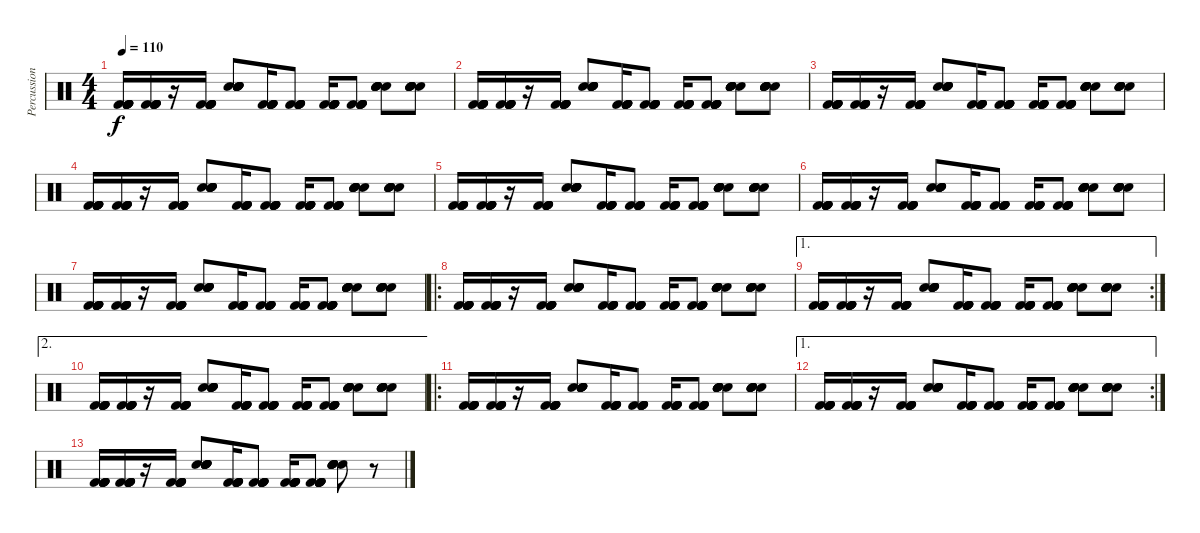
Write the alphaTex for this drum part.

\track ("Percussion 1" "Percussion") {instrument percussion}
\staff {score}
\articulation defaults
\ts (4 4)
\tempo 110
\clef neutral
\ks c
("Kick (hit) 2" "Kick (hit) 2" "Kick (hit) 2" "Kick (hit) 2" "Kick (hit) 2" "Kick (hit) 2").16{dy f} ("Kick (hit) 2" "Kick (hit) 2" "Kick (hit) 2" "Kick (hit) 2" "Kick (hit) 2" "Kick (hit) 2").16 r.16 ("Kick (hit) 2" "Kick (hit) 2" "Kick (hit) 2" "Kick (hit) 2" "Kick (hit) 2" "Kick (hit) 2").16 ("Electric Snare (hit)" "Electric Snare (hit)" "Electric Snare (hit)" "Electric Snare (hit)" "Electric Snare (hit)" "Electric Snare (hit)").8 ("Kick (hit) 2" "Kick (hit) 2" "Kick (hit) 2" "Kick (hit) 2" "Kick (hit) 2" "Kick (hit) 2").16 ("Kick (hit) 2" "Kick (hit) 2" "Kick (hit) 2" "Kick (hit) 2" "Kick (hit) 2" "Kick (hit) 2").8 ("Kick (hit) 2" "Kick (hit) 2" "Kick (hit) 2" "Kick (hit) 2" "Kick (hit) 2" "Kick (hit) 2").16 ("Kick (hit) 2" "Kick (hit) 2" "Kick (hit) 2" "Kick (hit) 2" "Kick (hit) 2" "Kick (hit) 2").8 ("Electric Snare (hit)" "Electric Snare (hit)" "Electric Snare (hit)" "Electric Snare (hit)" "Electric Snare (hit)" "Electric Snare (hit)").8 ("Electric Snare (hit)" "Electric Snare (hit)" "Electric Snare (hit)" "Electric Snare (hit)" "Electric Snare (hit)" "Electric Snare (hit)").8 |
("Kick (hit) 2" "Kick (hit) 2" "Kick (hit) 2" "Kick (hit) 2" "Kick (hit) 2" "Kick (hit) 2").16 ("Kick (hit) 2" "Kick (hit) 2" "Kick (hit) 2" "Kick (hit) 2" "Kick (hit) 2" "Kick (hit) 2").16 r.16 ("Kick (hit) 2" "Kick (hit) 2" "Kick (hit) 2" "Kick (hit) 2" "Kick (hit) 2" "Kick (hit) 2").16 ("Electric Snare (hit)" "Electric Snare (hit)" "Electric Snare (hit)" "Electric Snare (hit)" "Electric Snare (hit)" "Electric Snare (hit)").8 ("Kick (hit) 2" "Kick (hit) 2" "Kick (hit) 2" "Kick (hit) 2" "Kick (hit) 2" "Kick (hit) 2").16 ("Kick (hit) 2" "Kick (hit) 2" "Kick (hit) 2" "Kick (hit) 2" "Kick (hit) 2" "Kick (hit) 2").8 ("Kick (hit) 2" "Kick (hit) 2" "Kick (hit) 2" "Kick (hit) 2" "Kick (hit) 2" "Kick (hit) 2").16 ("Kick (hit) 2" "Kick (hit) 2" "Kick (hit) 2" "Kick (hit) 2" "Kick (hit) 2" "Kick (hit) 2").8 ("Electric Snare (hit)" "Electric Snare (hit)" "Electric Snare (hit)" "Electric Snare (hit)" "Electric Snare (hit)" "Electric Snare (hit)").8 ("Electric Snare (hit)" "Electric Snare (hit)" "Electric Snare (hit)" "Electric Snare (hit)" "Electric Snare (hit)" "Electric Snare (hit)").8 |
("Kick (hit) 2" "Kick (hit) 2" "Kick (hit) 2" "Kick (hit) 2" "Kick (hit) 2" "Kick (hit) 2").16 ("Kick (hit) 2" "Kick (hit) 2" "Kick (hit) 2" "Kick (hit) 2" "Kick (hit) 2" "Kick (hit) 2").16 r.16 ("Kick (hit) 2" "Kick (hit) 2" "Kick (hit) 2" "Kick (hit) 2" "Kick (hit) 2" "Kick (hit) 2").16 ("Electric Snare (hit)" "Electric Snare (hit)" "Electric Snare (hit)" "Electric Snare (hit)" "Electric Snare (hit)" "Electric Snare (hit)").8 ("Kick (hit) 2" "Kick (hit) 2" "Kick (hit) 2" "Kick (hit) 2" "Kick (hit) 2" "Kick (hit) 2").16 ("Kick (hit) 2" "Kick (hit) 2" "Kick (hit) 2" "Kick (hit) 2" "Kick (hit) 2" "Kick (hit) 2").8 ("Kick (hit) 2" "Kick (hit) 2" "Kick (hit) 2" "Kick (hit) 2" "Kick (hit) 2" "Kick (hit) 2").16 ("Kick (hit) 2" "Kick (hit) 2" "Kick (hit) 2" "Kick (hit) 2" "Kick (hit) 2" "Kick (hit) 2").8 ("Electric Snare (hit)" "Electric Snare (hit)" "Electric Snare (hit)" "Electric Snare (hit)" "Electric Snare (hit)" "Electric Snare (hit)").8 ("Electric Snare (hit)" "Electric Snare (hit)" "Electric Snare (hit)" "Electric Snare (hit)" "Electric Snare (hit)" "Electric Snare (hit)").8 |
("Kick (hit) 2" "Kick (hit) 2" "Kick (hit) 2" "Kick (hit) 2" "Kick (hit) 2" "Kick (hit) 2").16 ("Kick (hit) 2" "Kick (hit) 2" "Kick (hit) 2" "Kick (hit) 2" "Kick (hit) 2" "Kick (hit) 2").16 r.16 ("Kick (hit) 2" "Kick (hit) 2" "Kick (hit) 2" "Kick (hit) 2" "Kick (hit) 2" "Kick (hit) 2").16 ("Electric Snare (hit)" "Electric Snare (hit)" "Electric Snare (hit)" "Electric Snare (hit)" "Electric Snare (hit)" "Electric Snare (hit)").8 ("Kick (hit) 2" "Kick (hit) 2" "Kick (hit) 2" "Kick (hit) 2" "Kick (hit) 2" "Kick (hit) 2").16 ("Kick (hit) 2" "Kick (hit) 2" "Kick (hit) 2" "Kick (hit) 2" "Kick (hit) 2" "Kick (hit) 2").8 ("Kick (hit) 2" "Kick (hit) 2" "Kick (hit) 2" "Kick (hit) 2" "Kick (hit) 2" "Kick (hit) 2").16 ("Kick (hit) 2" "Kick (hit) 2" "Kick (hit) 2" "Kick (hit) 2" "Kick (hit) 2" "Kick (hit) 2").8 ("Electric Snare (hit)" "Electric Snare (hit)" "Electric Snare (hit)" "Electric Snare (hit)" "Electric Snare (hit)" "Electric Snare (hit)").8 ("Electric Snare (hit)" "Electric Snare (hit)" "Electric Snare (hit)" "Electric Snare (hit)" "Electric Snare (hit)" "Electric Snare (hit)").8 |
("Kick (hit) 2" "Kick (hit) 2" "Kick (hit) 2" "Kick (hit) 2" "Kick (hit) 2" "Kick (hit) 2").16 ("Kick (hit) 2" "Kick (hit) 2" "Kick (hit) 2" "Kick (hit) 2" "Kick (hit) 2" "Kick (hit) 2").16 r.16 ("Kick (hit) 2" "Kick (hit) 2" "Kick (hit) 2" "Kick (hit) 2" "Kick (hit) 2" "Kick (hit) 2").16 ("Electric Snare (hit)" "Electric Snare (hit)" "Electric Snare (hit)" "Electric Snare (hit)" "Electric Snare (hit)" "Electric Snare (hit)").8 ("Kick (hit) 2" "Kick (hit) 2" "Kick (hit) 2" "Kick (hit) 2" "Kick (hit) 2" "Kick (hit) 2").16 ("Kick (hit) 2" "Kick (hit) 2" "Kick (hit) 2" "Kick (hit) 2" "Kick (hit) 2" "Kick (hit) 2").8 ("Kick (hit) 2" "Kick (hit) 2" "Kick (hit) 2" "Kick (hit) 2" "Kick (hit) 2" "Kick (hit) 2").16 ("Kick (hit) 2" "Kick (hit) 2" "Kick (hit) 2" "Kick (hit) 2" "Kick (hit) 2" "Kick (hit) 2").8 ("Electric Snare (hit)" "Electric Snare (hit)" "Electric Snare (hit)" "Electric Snare (hit)" "Electric Snare (hit)" "Electric Snare (hit)").8 ("Electric Snare (hit)" "Electric Snare (hit)" "Electric Snare (hit)" "Electric Snare (hit)" "Electric Snare (hit)" "Electric Snare (hit)").8 |
("Kick (hit) 2" "Kick (hit) 2" "Kick (hit) 2" "Kick (hit) 2" "Kick (hit) 2" "Kick (hit) 2").16 ("Kick (hit) 2" "Kick (hit) 2" "Kick (hit) 2" "Kick (hit) 2" "Kick (hit) 2" "Kick (hit) 2").16 r.16 ("Kick (hit) 2" "Kick (hit) 2" "Kick (hit) 2" "Kick (hit) 2" "Kick (hit) 2" "Kick (hit) 2").16 ("Electric Snare (hit)" "Electric Snare (hit)" "Electric Snare (hit)" "Electric Snare (hit)" "Electric Snare (hit)" "Electric Snare (hit)").8 ("Kick (hit) 2" "Kick (hit) 2" "Kick (hit) 2" "Kick (hit) 2" "Kick (hit) 2" "Kick (hit) 2").16 ("Kick (hit) 2" "Kick (hit) 2" "Kick (hit) 2" "Kick (hit) 2" "Kick (hit) 2" "Kick (hit) 2").8 ("Kick (hit) 2" "Kick (hit) 2" "Kick (hit) 2" "Kick (hit) 2" "Kick (hit) 2" "Kick (hit) 2").16 ("Kick (hit) 2" "Kick (hit) 2" "Kick (hit) 2" "Kick (hit) 2" "Kick (hit) 2" "Kick (hit) 2").8 ("Electric Snare (hit)" "Electric Snare (hit)" "Electric Snare (hit)" "Electric Snare (hit)" "Electric Snare (hit)" "Electric Snare (hit)").8 ("Electric Snare (hit)" "Electric Snare (hit)" "Electric Snare (hit)" "Electric Snare (hit)" "Electric Snare (hit)" "Electric Snare (hit)").8 |
("Kick (hit) 2" "Kick (hit) 2" "Kick (hit) 2" "Kick (hit) 2" "Kick (hit) 2" "Kick (hit) 2").16 ("Kick (hit) 2" "Kick (hit) 2" "Kick (hit) 2" "Kick (hit) 2" "Kick (hit) 2" "Kick (hit) 2").16 r.16 ("Kick (hit) 2" "Kick (hit) 2" "Kick (hit) 2" "Kick (hit) 2" "Kick (hit) 2" "Kick (hit) 2").16 ("Electric Snare (hit)" "Electric Snare (hit)" "Electric Snare (hit)" "Electric Snare (hit)" "Electric Snare (hit)" "Electric Snare (hit)").8 ("Kick (hit) 2" "Kick (hit) 2" "Kick (hit) 2" "Kick (hit) 2" "Kick (hit) 2" "Kick (hit) 2").16 ("Kick (hit) 2" "Kick (hit) 2" "Kick (hit) 2" "Kick (hit) 2" "Kick (hit) 2" "Kick (hit) 2").8 ("Kick (hit) 2" "Kick (hit) 2" "Kick (hit) 2" "Kick (hit) 2" "Kick (hit) 2" "Kick (hit) 2").16 ("Kick (hit) 2" "Kick (hit) 2" "Kick (hit) 2" "Kick (hit) 2" "Kick (hit) 2" "Kick (hit) 2").8 ("Electric Snare (hit)" "Electric Snare (hit)" "Electric Snare (hit)" "Electric Snare (hit)" "Electric Snare (hit)" "Electric Snare (hit)").8 ("Electric Snare (hit)" "Electric Snare (hit)" "Electric Snare (hit)" "Electric Snare (hit)" "Electric Snare (hit)" "Electric Snare (hit)").8 |
\ro
("Kick (hit) 2" "Kick (hit) 2" "Kick (hit) 2" "Kick (hit) 2" "Kick (hit) 2" "Kick (hit) 2").16 ("Kick (hit) 2" "Kick (hit) 2" "Kick (hit) 2" "Kick (hit) 2" "Kick (hit) 2" "Kick (hit) 2").16 r.16 ("Kick (hit) 2" "Kick (hit) 2" "Kick (hit) 2" "Kick (hit) 2" "Kick (hit) 2" "Kick (hit) 2").16 ("Electric Snare (hit)" "Electric Snare (hit)" "Electric Snare (hit)" "Electric Snare (hit)" "Electric Snare (hit)" "Electric Snare (hit)").8 ("Kick (hit) 2" "Kick (hit) 2" "Kick (hit) 2" "Kick (hit) 2" "Kick (hit) 2" "Kick (hit) 2").16 ("Kick (hit) 2" "Kick (hit) 2" "Kick (hit) 2" "Kick (hit) 2" "Kick (hit) 2" "Kick (hit) 2").8 ("Kick (hit) 2" "Kick (hit) 2" "Kick (hit) 2" "Kick (hit) 2" "Kick (hit) 2" "Kick (hit) 2").16 ("Kick (hit) 2" "Kick (hit) 2" "Kick (hit) 2" "Kick (hit) 2" "Kick (hit) 2" "Kick (hit) 2").8 ("Electric Snare (hit)" "Electric Snare (hit)" "Electric Snare (hit)" "Electric Snare (hit)" "Electric Snare (hit)" "Electric Snare (hit)").8 ("Electric Snare (hit)" "Electric Snare (hit)" "Electric Snare (hit)" "Electric Snare (hit)" "Electric Snare (hit)" "Electric Snare (hit)").8 |
\ae 1
\rc 2
("Kick (hit) 2" "Kick (hit) 2" "Kick (hit) 2" "Kick (hit) 2" "Kick (hit) 2" "Kick (hit) 2").16 ("Kick (hit) 2" "Kick (hit) 2" "Kick (hit) 2" "Kick (hit) 2" "Kick (hit) 2" "Kick (hit) 2").16 r.16 ("Kick (hit) 2" "Kick (hit) 2" "Kick (hit) 2" "Kick (hit) 2" "Kick (hit) 2" "Kick (hit) 2").16 ("Electric Snare (hit)" "Electric Snare (hit)" "Electric Snare (hit)" "Electric Snare (hit)" "Electric Snare (hit)" "Electric Snare (hit)").8 ("Kick (hit) 2" "Kick (hit) 2" "Kick (hit) 2" "Kick (hit) 2" "Kick (hit) 2" "Kick (hit) 2").16 ("Kick (hit) 2" "Kick (hit) 2" "Kick (hit) 2" "Kick (hit) 2" "Kick (hit) 2" "Kick (hit) 2").8 ("Kick (hit) 2" "Kick (hit) 2" "Kick (hit) 2" "Kick (hit) 2" "Kick (hit) 2" "Kick (hit) 2").16 ("Kick (hit) 2" "Kick (hit) 2" "Kick (hit) 2" "Kick (hit) 2" "Kick (hit) 2" "Kick (hit) 2").8 ("Electric Snare (hit)" "Electric Snare (hit)" "Electric Snare (hit)" "Electric Snare (hit)" "Electric Snare (hit)" "Electric Snare (hit)").8 ("Electric Snare (hit)" "Electric Snare (hit)" "Electric Snare (hit)" "Electric Snare (hit)" "Electric Snare (hit)" "Electric Snare (hit)").8 |
\ae 2
("Kick (hit) 2" "Kick (hit) 2" "Kick (hit) 2" "Kick (hit) 2" "Kick (hit) 2" "Kick (hit) 2").16 ("Kick (hit) 2" "Kick (hit) 2" "Kick (hit) 2" "Kick (hit) 2" "Kick (hit) 2" "Kick (hit) 2").16 r.16 ("Kick (hit) 2" "Kick (hit) 2" "Kick (hit) 2" "Kick (hit) 2" "Kick (hit) 2" "Kick (hit) 2").16 ("Electric Snare (hit)" "Electric Snare (hit)" "Electric Snare (hit)" "Electric Snare (hit)" "Electric Snare (hit)" "Electric Snare (hit)").8 ("Kick (hit) 2" "Kick (hit) 2" "Kick (hit) 2" "Kick (hit) 2" "Kick (hit) 2" "Kick (hit) 2").16 ("Kick (hit) 2" "Kick (hit) 2" "Kick (hit) 2" "Kick (hit) 2" "Kick (hit) 2" "Kick (hit) 2").8 ("Kick (hit) 2" "Kick (hit) 2" "Kick (hit) 2" "Kick (hit) 2" "Kick (hit) 2" "Kick (hit) 2").16 ("Kick (hit) 2" "Kick (hit) 2" "Kick (hit) 2" "Kick (hit) 2" "Kick (hit) 2" "Kick (hit) 2").8 ("Electric Snare (hit)" "Electric Snare (hit)" "Electric Snare (hit)" "Electric Snare (hit)" "Electric Snare (hit)" "Electric Snare (hit)").8 ("Electric Snare (hit)" "Electric Snare (hit)" "Electric Snare (hit)" "Electric Snare (hit)" "Electric Snare (hit)" "Electric Snare (hit)").8 |
\ro
("Kick (hit) 2" "Kick (hit) 2" "Kick (hit) 2" "Kick (hit) 2" "Kick (hit) 2" "Kick (hit) 2").16 ("Kick (hit) 2" "Kick (hit) 2" "Kick (hit) 2" "Kick (hit) 2" "Kick (hit) 2" "Kick (hit) 2").16 r.16 ("Kick (hit) 2" "Kick (hit) 2" "Kick (hit) 2" "Kick (hit) 2" "Kick (hit) 2" "Kick (hit) 2").16 ("Electric Snare (hit)" "Electric Snare (hit)" "Electric Snare (hit)" "Electric Snare (hit)" "Electric Snare (hit)" "Electric Snare (hit)").8 ("Kick (hit) 2" "Kick (hit) 2" "Kick (hit) 2" "Kick (hit) 2" "Kick (hit) 2" "Kick (hit) 2").16 ("Kick (hit) 2" "Kick (hit) 2" "Kick (hit) 2" "Kick (hit) 2" "Kick (hit) 2" "Kick (hit) 2").8 ("Kick (hit) 2" "Kick (hit) 2" "Kick (hit) 2" "Kick (hit) 2" "Kick (hit) 2" "Kick (hit) 2").16 ("Kick (hit) 2" "Kick (hit) 2" "Kick (hit) 2" "Kick (hit) 2" "Kick (hit) 2" "Kick (hit) 2").8 ("Electric Snare (hit)" "Electric Snare (hit)" "Electric Snare (hit)" "Electric Snare (hit)" "Electric Snare (hit)" "Electric Snare (hit)").8 ("Electric Snare (hit)" "Electric Snare (hit)" "Electric Snare (hit)" "Electric Snare (hit)" "Electric Snare (hit)" "Electric Snare (hit)").8 |
\ae 1
\rc 2
("Kick (hit) 2" "Kick (hit) 2" "Kick (hit) 2" "Kick (hit) 2" "Kick (hit) 2" "Kick (hit) 2").16 ("Kick (hit) 2" "Kick (hit) 2" "Kick (hit) 2" "Kick (hit) 2" "Kick (hit) 2" "Kick (hit) 2").16 r.16 ("Kick (hit) 2" "Kick (hit) 2" "Kick (hit) 2" "Kick (hit) 2" "Kick (hit) 2" "Kick (hit) 2").16 ("Electric Snare (hit)" "Electric Snare (hit)" "Electric Snare (hit)" "Electric Snare (hit)" "Electric Snare (hit)" "Electric Snare (hit)").8 ("Kick (hit) 2" "Kick (hit) 2" "Kick (hit) 2" "Kick (hit) 2" "Kick (hit) 2" "Kick (hit) 2").16 ("Kick (hit) 2" "Kick (hit) 2" "Kick (hit) 2" "Kick (hit) 2" "Kick (hit) 2" "Kick (hit) 2").8 ("Kick (hit) 2" "Kick (hit) 2" "Kick (hit) 2" "Kick (hit) 2" "Kick (hit) 2" "Kick (hit) 2").16 ("Kick (hit) 2" "Kick (hit) 2" "Kick (hit) 2" "Kick (hit) 2" "Kick (hit) 2" "Kick (hit) 2").8 ("Electric Snare (hit)" "Electric Snare (hit)" "Electric Snare (hit)" "Electric Snare (hit)" "Electric Snare (hit)" "Electric Snare (hit)").8 ("Electric Snare (hit)" "Electric Snare (hit)" "Electric Snare (hit)" "Electric Snare (hit)" "Electric Snare (hit)" "Electric Snare (hit)").8 |
("Kick (hit) 2" "Kick (hit) 2" "Kick (hit) 2" "Kick (hit) 2" "Kick (hit) 2" "Kick (hit) 2").16 ("Kick (hit) 2" "Kick (hit) 2" "Kick (hit) 2" "Kick (hit) 2" "Kick (hit) 2" "Kick (hit) 2").16 r.16 ("Kick (hit) 2" "Kick (hit) 2" "Kick (hit) 2" "Kick (hit) 2" "Kick (hit) 2" "Kick (hit) 2").16 ("Electric Snare (hit)" "Electric Snare (hit)" "Electric Snare (hit)" "Electric Snare (hit)" "Electric Snare (hit)" "Electric Snare (hit)").8 ("Kick (hit) 2" "Kick (hit) 2" "Kick (hit) 2" "Kick (hit) 2" "Kick (hit) 2" "Kick (hit) 2").16 ("Kick (hit) 2" "Kick (hit) 2" "Kick (hit) 2" "Kick (hit) 2" "Kick (hit) 2" "Kick (hit) 2").8 ("Kick (hit) 2" "Kick (hit) 2" "Kick (hit) 2" "Kick (hit) 2" "Kick (hit) 2" "Kick (hit) 2").16 ("Kick (hit) 2" "Kick (hit) 2" "Kick (hit) 2" "Kick (hit) 2" "Kick (hit) 2" "Kick (hit) 2").8 ("Electric Snare (hit)" "Electric Snare (hit)" "Electric Snare (hit)" "Electric Snare (hit)" "Electric Snare (hit)" "Electric Snare (hit)").8 r.8
